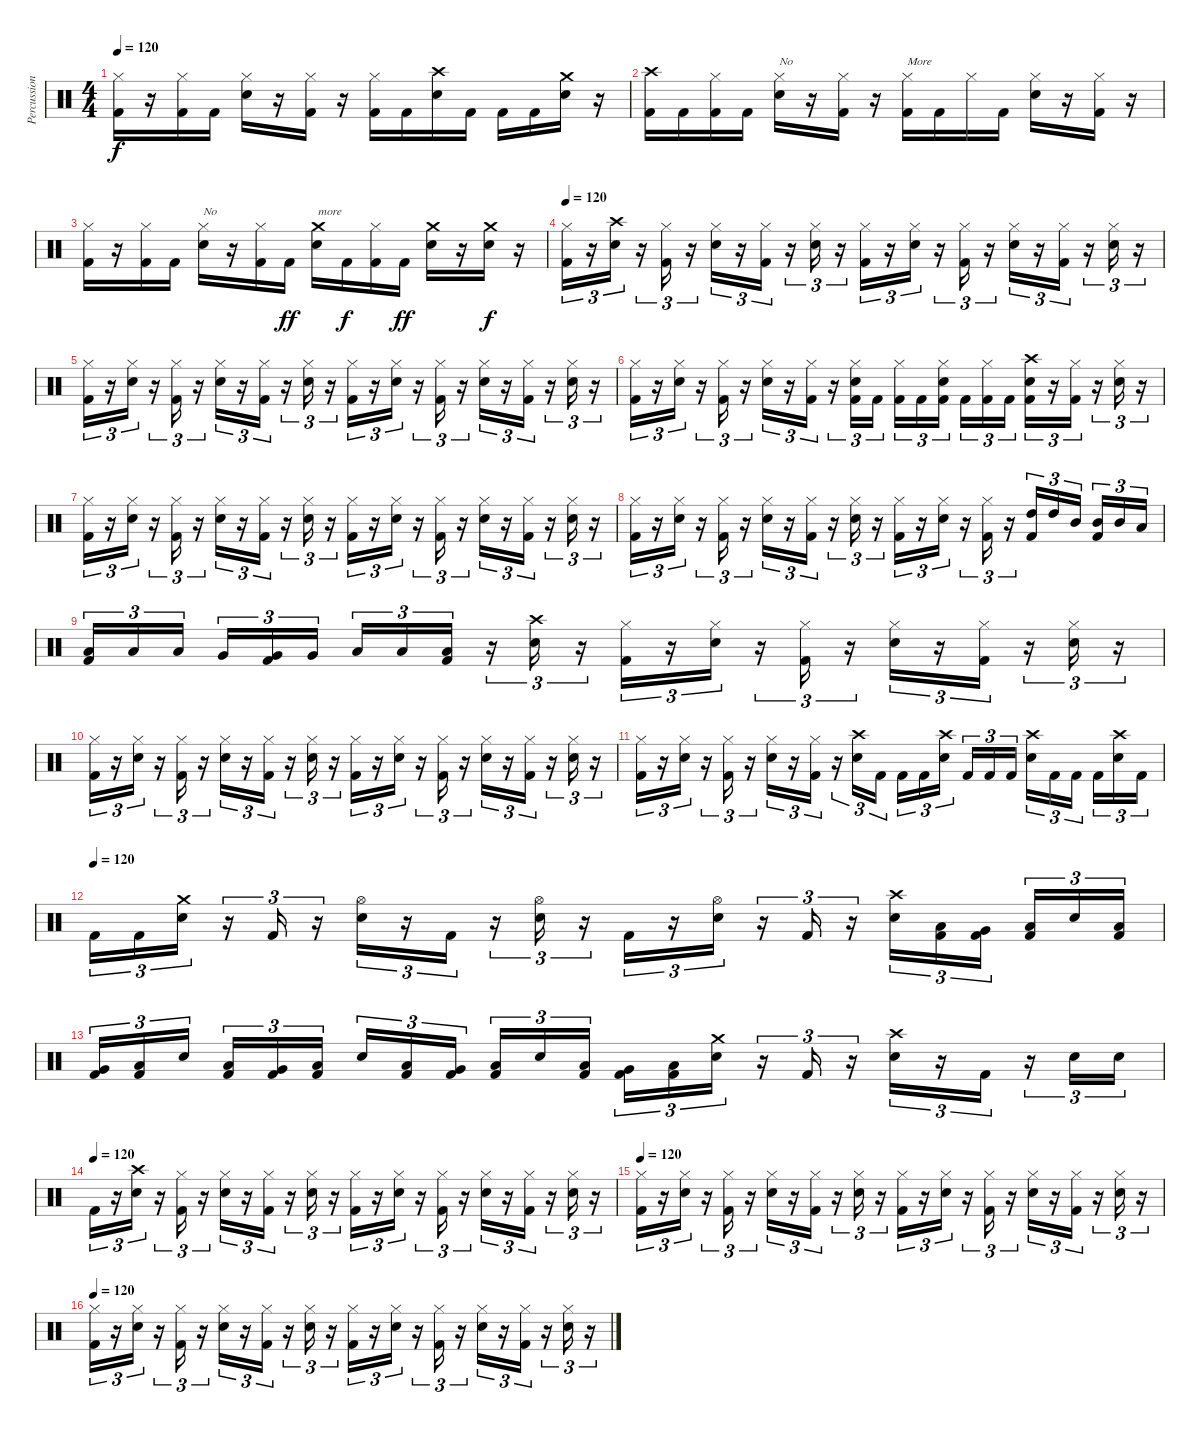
\track ("Percussion" "Percussion") {instrument percussion}
\staff {score}
\articulation defaults
\ts (4 4)
\tempo 120
\clef neutral
\ks c
("Hi-Hat (closed)" "Kick (hit) 2").16{dy f} r.16 ("Hi-Hat (closed)" "Kick (hit) 2").16 "Kick (hit) 2".16 ("Hi-Hat (closed)" "Snare (hit) 2").16 r.16 ("Hi-Hat (closed)" "Kick (hit) 2").16 r.16 ("Hi-Hat (closed)" "Kick (hit) 2").16 "Kick (hit) 2".16 ("Crash high (hit)" "Snare (hit) 2").16 "Kick (hit) 2".16 "Kick (hit) 2".16 "Kick (hit) 2".16 ("Crash medium (hit)" "Snare (hit) 2").16 r.16 |
("Crash high (hit)" "Kick (hit) 2").16 "Kick (hit) 2".16 ("Hi-Hat (closed)" "Kick (hit) 2").16 "Kick (hit) 2".16 ("Hi-Hat (closed)" "Snare (hit) 2").16{txt "No"} r.16 ("Hi-Hat (closed)" "Kick (hit) 2").16 r.16 ("Hi-Hat (closed)" "Kick (hit) 2").16{txt "More"} "Kick (hit) 2".16 "Hi-Hat (closed)".16 "Kick (hit) 2".16 ("Hi-Hat (closed)" "Snare (hit) 2").16 r.16 ("Hi-Hat (closed)" "Kick (hit) 2").16 r.16 |
("Hi-Hat (closed)" "Kick (hit) 2").16 r.16 ("Hi-Hat (closed)" "Kick (hit) 2").16 "Kick (hit) 2".16 ("Hi-Hat (closed)" "Snare (hit) 2").16{txt "No"} r.16 ("Hi-Hat (closed)" "Kick (hit) 2").16 "Kick (hit) 2".16{dy ff} ("Crash medium (hit)" "Snare (hit) 2").16{txt "more"} "Kick (hit) 2".16{dy f} ("Hi-Hat (closed)" "Kick (hit) 2").16 "Kick (hit) 2".16{dy ff} ("Crash medium (hit)" "Snare (hit) 2").16 r.16 ("Crash medium (hit)" "Snare (hit) 2").16{dy f} r.16 |
\tempo 120
("Hi-Hat (closed)" "Kick (hit) 2").16{tu (3 2)} r.16{tu (3 2)} ("Crash high (hit)" "Snare (hit) 2").16{tu (3 2)} r.16{tu (3 2)} ("Hi-Hat (closed)" "Kick (hit) 2").16{tu (3 2)} r.16{tu (3 2)} ("Hi-Hat (closed)" "Snare (hit) 2").16{tu (3 2)} r.16{tu (3 2)} ("Hi-Hat (closed)" "Kick (hit) 2").16{tu (3 2)} r.16{tu (3 2)} ("Hi-Hat (closed)" "Snare (hit) 2").16{tu (3 2)} r.16{tu (3 2)} ("Hi-Hat (closed)" "Kick (hit) 2").16{tu (3 2)} r.16{tu (3 2)} ("Hi-Hat (closed)" "Snare (hit) 2").16{tu (3 2)} r.16{tu (3 2)} ("Hi-Hat (closed)" "Kick (hit) 2").16{tu (3 2)} r.16{tu (3 2)} ("Hi-Hat (closed)" "Snare (hit) 2").16{tu (3 2)} r.16{tu (3 2)} ("Hi-Hat (closed)" "Kick (hit) 2").16{tu (3 2)} r.16{tu (3 2)} ("Hi-Hat (closed)" "Snare (hit) 2").16{tu (3 2)} r.16{tu (3 2)} |
("Hi-Hat (closed)" "Kick (hit) 2").16{tu (3 2)} r.16{tu (3 2)} ("Hi-Hat (closed)" "Snare (hit) 2").16{tu (3 2)} r.16{tu (3 2)} ("Hi-Hat (closed)" "Kick (hit) 2").16{tu (3 2)} r.16{tu (3 2)} ("Hi-Hat (closed)" "Snare (hit) 2").16{tu (3 2)} r.16{tu (3 2)} ("Hi-Hat (closed)" "Kick (hit) 2").16{tu (3 2)} r.16{tu (3 2)} ("Hi-Hat (closed)" "Snare (hit) 2").16{tu (3 2)} r.16{tu (3 2)} ("Hi-Hat (closed)" "Kick (hit) 2").16{tu (3 2)} r.16{tu (3 2)} ("Hi-Hat (closed)" "Snare (hit) 2").16{tu (3 2)} r.16{tu (3 2)} ("Hi-Hat (closed)" "Kick (hit) 2").16{tu (3 2)} r.16{tu (3 2)} ("Hi-Hat (closed)" "Snare (hit) 2").16{tu (3 2)} r.16{tu (3 2)} ("Hi-Hat (closed)" "Kick (hit) 2").16{tu (3 2)} r.16{tu (3 2)} ("Hi-Hat (closed)" "Snare (hit) 2").16{tu (3 2)} r.16{tu (3 2)} |
("Hi-Hat (closed)" "Kick (hit) 2").16{tu (3 2)} r.16{tu (3 2)} ("Hi-Hat (closed)" "Snare (hit) 2").16{tu (3 2)} r.16{tu (3 2)} ("Hi-Hat (closed)" "Kick (hit) 2").16{tu (3 2)} r.16{tu (3 2)} ("Hi-Hat (closed)" "Snare (hit) 2").16{tu (3 2)} r.16{tu (3 2)} ("Hi-Hat (closed)" "Kick (hit) 2").16{tu (3 2)} r.16{tu (3 2)} ("Hi-Hat (closed)" "Snare (hit) 2" "Kick (hit) 2").16{tu (3 2)} "Kick (hit) 2".16{tu (3 2)} ("Hi-Hat (closed)" "Kick (hit) 2").16{tu (3 2)} "Kick (hit) 2".16{tu (3 2)} ("Hi-Hat (closed)" "Snare (hit) 2" "Kick (hit) 2").16{tu (3 2) beam splitsecondary} "Kick (hit) 2".16{tu (3 2)} ("Hi-Hat (closed)" "Kick (hit) 2").16{tu (3 2)} "Kick (hit) 2".16{tu (3 2)} ("Crash high (hit)" "Snare (hit) 2" "Kick (hit) 2").16{tu (3 2)} r.16{tu (3 2)} ("Hi-Hat (closed)" "Kick (hit) 2").16{tu (3 2)} r.16{tu (3 2)} ("Hi-Hat (closed)" "Snare (hit) 2").16{tu (3 2)} r.16{tu (3 2)} |
("Hi-Hat (closed)" "Kick (hit) 2").16{tu (3 2)} r.16{tu (3 2)} ("Hi-Hat (closed)" "Snare (hit) 2").16{tu (3 2)} r.16{tu (3 2)} ("Hi-Hat (closed)" "Kick (hit) 2").16{tu (3 2)} r.16{tu (3 2)} ("Hi-Hat (closed)" "Snare (hit) 2").16{tu (3 2)} r.16{tu (3 2)} ("Hi-Hat (closed)" "Kick (hit) 2").16{tu (3 2)} r.16{tu (3 2)} ("Hi-Hat (closed)" "Snare (hit) 2").16{tu (3 2)} r.16{tu (3 2)} ("Hi-Hat (closed)" "Kick (hit) 2").16{tu (3 2)} r.16{tu (3 2)} ("Hi-Hat (closed)" "Snare (hit) 2").16{tu (3 2)} r.16{tu (3 2)} ("Hi-Hat (closed)" "Kick (hit) 2").16{tu (3 2)} r.16{tu (3 2)} ("Hi-Hat (closed)" "Snare (hit) 2").16{tu (3 2)} r.16{tu (3 2)} ("Hi-Hat (closed)" "Kick (hit) 2").16{tu (3 2)} r.16{tu (3 2)} ("Hi-Hat (closed)" "Snare (hit) 2").16{tu (3 2)} r.16{tu (3 2)} |
("Hi-Hat (closed)" "Kick (hit) 2").16{tu (3 2)} r.16{tu (3 2)} ("Hi-Hat (closed)" "Snare (hit) 2").16{tu (3 2)} r.16{tu (3 2)} ("Hi-Hat (closed)" "Kick (hit) 2").16{tu (3 2)} r.16{tu (3 2)} ("Hi-Hat (closed)" "Snare (hit) 2").16{tu (3 2)} r.16{tu (3 2)} ("Hi-Hat (closed)" "Kick (hit) 2").16{tu (3 2)} r.16{tu (3 2)} ("Hi-Hat (closed)" "Snare (hit) 2").16{tu (3 2)} r.16{tu (3 2)} ("Hi-Hat (closed)" "Kick (hit) 2").16{tu (3 2)} r.16{tu (3 2)} ("Hi-Hat (closed)" "Snare (hit) 2").16{tu (3 2)} r.16{tu (3 2)} ("Hi-Hat (closed)" "Kick (hit) 2").16{tu (3 2)} r.16{tu (3 2)} ("High Tom (hit)" "Kick (hit) 2").16{tu (3 2)} "High Tom (hit)".16{tu (3 2)} "Mid Tom (hit)".16{tu (3 2) beam splitsecondary} ("Mid Tom (hit)" "Kick (hit) 2").16{tu (3 2)} "Mid Tom (hit)".16{tu (3 2)} "Low Tom (hit)".16{tu (3 2)} |
("Low Tom (hit)" "Kick (hit) 2").16{tu (3 2)} "Low Tom (hit)".16{tu (3 2)} "Low Tom (hit)".16{tu (3 2) beam splitsecondary} "Very Low Tom (hit)".16{tu (3 2)} ("Very Low Tom (hit)" "Kick (hit) 2").16{tu (3 2)} "Very Low Tom (hit)".16{tu (3 2)} "Low Floor Tom (hit)".16{tu (3 2)} "Low Floor Tom (hit)".16{tu (3 2)} ("Low Floor Tom (hit)" "Kick (hit) 2").16{tu (3 2)} r.16{tu (3 2)} ("Crash high (hit)" "Snare (hit) 2").16{tu (3 2)} r.16{tu (3 2)} ("Hi-Hat (closed)" "Kick (hit) 2").16{tu (3 2)} r.16{tu (3 2)} ("Hi-Hat (closed)" "Snare (hit) 2").16{tu (3 2)} r.16{tu (3 2)} ("Hi-Hat (closed)" "Kick (hit) 2").16{tu (3 2)} r.16{tu (3 2)} ("Hi-Hat (closed)" "Snare (hit) 2").16{tu (3 2)} r.16{tu (3 2)} ("Hi-Hat (closed)" "Kick (hit) 2").16{tu (3 2)} r.16{tu (3 2)} ("Hi-Hat (closed)" "Snare (hit) 2").16{tu (3 2)} r.16{tu (3 2)} |
("Hi-Hat (closed)" "Kick (hit) 2").16{tu (3 2)} r.16{tu (3 2)} ("Hi-Hat (closed)" "Snare (hit) 2").16{tu (3 2)} r.16{tu (3 2)} ("Hi-Hat (closed)" "Kick (hit) 2").16{tu (3 2)} r.16{tu (3 2)} ("Hi-Hat (closed)" "Snare (hit) 2").16{tu (3 2)} r.16{tu (3 2)} ("Hi-Hat (closed)" "Kick (hit) 2").16{tu (3 2)} r.16{tu (3 2)} ("Hi-Hat (closed)" "Snare (hit) 2").16{tu (3 2)} r.16{tu (3 2)} ("Hi-Hat (closed)" "Kick (hit) 2").16{tu (3 2)} r.16{tu (3 2)} ("Hi-Hat (closed)" "Snare (hit) 2").16{tu (3 2)} r.16{tu (3 2)} ("Hi-Hat (closed)" "Kick (hit) 2").16{tu (3 2)} r.16{tu (3 2)} ("Hi-Hat (closed)" "Snare (hit) 2").16{tu (3 2)} r.16{tu (3 2)} ("Hi-Hat (closed)" "Kick (hit) 2").16{tu (3 2)} r.16{tu (3 2)} ("Hi-Hat (closed)" "Snare (hit) 2").16{tu (3 2)} r.16{tu (3 2)} |
("Hi-Hat (closed)" "Kick (hit) 2").16{tu (3 2)} r.16{tu (3 2)} ("Hi-Hat (closed)" "Snare (hit) 2").16{tu (3 2)} r.16{tu (3 2)} ("Hi-Hat (closed)" "Kick (hit) 2").16{tu (3 2)} r.16{tu (3 2)} ("Hi-Hat (closed)" "Snare (hit) 2").16{tu (3 2)} r.16{tu (3 2)} ("Hi-Hat (closed)" "Kick (hit) 2").16{tu (3 2)} r.16{tu (3 2)} ("Crash high (hit)" "Snare (hit) 2").16{tu (3 2)} "Kick (hit) 2".16{tu (3 2)} "Kick (hit) 2".16{tu (3 2)} "Kick (hit) 2".16{tu (3 2)} ("Crash high (hit)" "Snare (hit) 2").16{tu (3 2) beam splitsecondary} "Kick (hit) 2".16{tu (3 2)} "Kick (hit) 2".16{tu (3 2)} "Kick (hit) 2".16{tu (3 2)} ("Crash high (hit)" "Snare (hit) 2").16{tu (3 2)} "Kick (hit) 2".16{tu (3 2)} "Kick (hit) 2".16{tu (3 2) beam splitsecondary} "Kick (hit) 2".16{tu (3 2)} ("Crash high (hit)" "Snare (hit) 2").16{tu (3 2)} "Kick (hit) 2".16{tu (3 2)} |
\tempo (120)
"Kick (hit) 2".16{tu (3 2)} "Kick (hit) 2".16{tu (3 2)} ("Crash medium (hit)" "Snare (hit) 2").16{tu (3 2)} r.16{tu (3 2)} "Kick (hit) 2".16{tu (3 2)} r.16{tu (3 2)} ("Hi-Hat (open)" "Snare (hit) 2").16{tu (3 2)} r.16{tu (3 2)} "Kick (hit) 2".16{tu (3 2)} r.16{tu (3 2)} ("Hi-Hat (open)" "Snare (hit) 2").16{tu (3 2)} r.16{tu (3 2)} "Kick (hit) 2".16{tu (3 2)} r.16{tu (3 2)} ("Hi-Hat (open)" "Snare (hit) 2").16{tu (3 2)} r.16{tu (3 2)} "Kick (hit) 2".16{tu (3 2)} r.16{tu (3 2)} ("Crash high (hit)" "Snare (hit) 2").16{tu (3 2)} ("Low Tom (hit)" "Kick (hit) 2").16{tu (3 2)} ("Very Low Tom (hit)" "Kick (hit) 2").16{tu (3 2) beam splitsecondary} ("Low Floor Tom (hit)" "Kick (hit) 2").16{tu (3 2)} "Snare (hit) 2".16{tu (3 2)} ("Low Tom (hit)" "Kick (hit) 2").16{tu (3 2)} |
("Very Low Tom (hit)" "Kick (hit) 2").16{tu (3 2)} ("Low Floor Tom (hit)" "Kick (hit) 2").16{tu (3 2)} "Snare (hit) 2".16{tu (3 2) beam splitsecondary} ("Low Tom (hit)" "Kick (hit) 2").16{tu (3 2)} ("Very Low Tom (hit)" "Kick (hit) 2").16{tu (3 2)} ("Low Floor Tom (hit)" "Kick (hit) 2").16{tu (3 2)} "Snare (hit) 2".16{tu (3 2)} ("Low Tom (hit)" "Kick (hit) 2").16{tu (3 2)} ("Very Low Tom (hit)" "Kick (hit) 2").16{tu (3 2) beam splitsecondary} ("Low Floor Tom (hit)" "Kick (hit) 2").16{tu (3 2)} "Snare (hit) 2".16{tu (3 2)} ("Low Tom (hit)" "Kick (hit) 2").16{tu (3 2)} ("Very Low Tom (hit)" "Kick (hit) 2").16{tu (3 2)} ("Low Floor Tom (hit)" "Kick (hit) 2").16{tu (3 2)} ("Crash medium (hit)" "Snare (hit) 2").16{tu (3 2)} r.16{tu (3 2)} "Kick (hit) 2".16{tu (3 2)} r.16{tu (3 2)} ("Crash high (hit)" "Snare (hit) 2").16{tu (3 2)} r.16{tu (3 2)} "Kick (hit) 2".16{tu (3 2)} r.16{tu (3 2)} "Snare (hit) 2".16{tu (3 2)} "Snare (hit) 2".16{tu (3 2)} |
\tempo (120)
"Kick (hit) 2".16{tu (3 2)} r.16{tu (3 2)} ("Crash high (hit)" "Snare (hit) 2").16{tu (3 2)} r.16{tu (3 2)} ("Hi-Hat (closed)" "Kick (hit) 2").16{tu (3 2)} r.16{tu (3 2)} ("Hi-Hat (closed)" "Snare (hit) 2").16{tu (3 2)} r.16{tu (3 2)} ("Hi-Hat (closed)" "Kick (hit) 2").16{tu (3 2)} r.16{tu (3 2)} ("Hi-Hat (closed)" "Snare (hit) 2").16{tu (3 2)} r.16{tu (3 2)} ("Hi-Hat (closed)" "Kick (hit) 2").16{tu (3 2)} r.16{tu (3 2)} ("Hi-Hat (closed)" "Snare (hit) 2").16{tu (3 2)} r.16{tu (3 2)} ("Hi-Hat (closed)" "Kick (hit) 2").16{tu (3 2)} r.16{tu (3 2)} ("Hi-Hat (closed)" "Snare (hit) 2").16{tu (3 2)} r.16{tu (3 2)} ("Hi-Hat (closed)" "Kick (hit) 2").16{tu (3 2)} r.16{tu (3 2)} ("Hi-Hat (closed)" "Snare (hit) 2").16{tu (3 2)} r.16{tu (3 2)} |
\tempo 120
("Hi-Hat (closed)" "Kick (hit) 2").16{tu (3 2)} r.16{tu (3 2)} ("Hi-Hat (closed)" "Snare (hit) 2").16{tu (3 2)} r.16{tu (3 2)} ("Hi-Hat (closed)" "Kick (hit) 2").16{tu (3 2)} r.16{tu (3 2)} ("Hi-Hat (closed)" "Snare (hit) 2").16{tu (3 2)} r.16{tu (3 2)} ("Hi-Hat (closed)" "Kick (hit) 2").16{tu (3 2)} r.16{tu (3 2)} ("Hi-Hat (closed)" "Snare (hit) 2").16{tu (3 2)} r.16{tu (3 2)} ("Hi-Hat (closed)" "Kick (hit) 2").16{tu (3 2)} r.16{tu (3 2)} ("Hi-Hat (closed)" "Snare (hit) 2").16{tu (3 2)} r.16{tu (3 2)} ("Hi-Hat (closed)" "Kick (hit) 2").16{tu (3 2)} r.16{tu (3 2)} ("Hi-Hat (closed)" "Snare (hit) 2").16{tu (3 2)} r.16{tu (3 2)} ("Hi-Hat (closed)" "Kick (hit) 2").16{tu (3 2)} r.16{tu (3 2)} ("Hi-Hat (closed)" "Snare (hit) 2").16{tu (3 2)} r.16{tu (3 2)} |
\tempo 120
("Hi-Hat (closed)" "Kick (hit) 2").16{tu (3 2)} r.16{tu (3 2)} ("Hi-Hat (closed)" "Snare (hit) 2").16{tu (3 2)} r.16{tu (3 2)} ("Hi-Hat (closed)" "Kick (hit) 2").16{tu (3 2)} r.16{tu (3 2)} ("Hi-Hat (closed)" "Snare (hit) 2").16{tu (3 2)} r.16{tu (3 2)} ("Hi-Hat (closed)" "Kick (hit) 2").16{tu (3 2)} r.16{tu (3 2)} ("Hi-Hat (closed)" "Snare (hit) 2").16{tu (3 2)} r.16{tu (3 2)} ("Hi-Hat (closed)" "Kick (hit) 2").16{tu (3 2)} r.16{tu (3 2)} ("Hi-Hat (closed)" "Snare (hit) 2").16{tu (3 2)} r.16{tu (3 2)} ("Hi-Hat (closed)" "Kick (hit) 2").16{tu (3 2)} r.16{tu (3 2)} ("Hi-Hat (closed)" "Snare (hit) 2").16{tu (3 2)} r.16{tu (3 2)} ("Hi-Hat (closed)" "Kick (hit) 2").16{tu (3 2)} r.16{tu (3 2)} ("Hi-Hat (closed)" "Snare (hit) 2").16{tu (3 2)} r.16{tu (3 2)}
